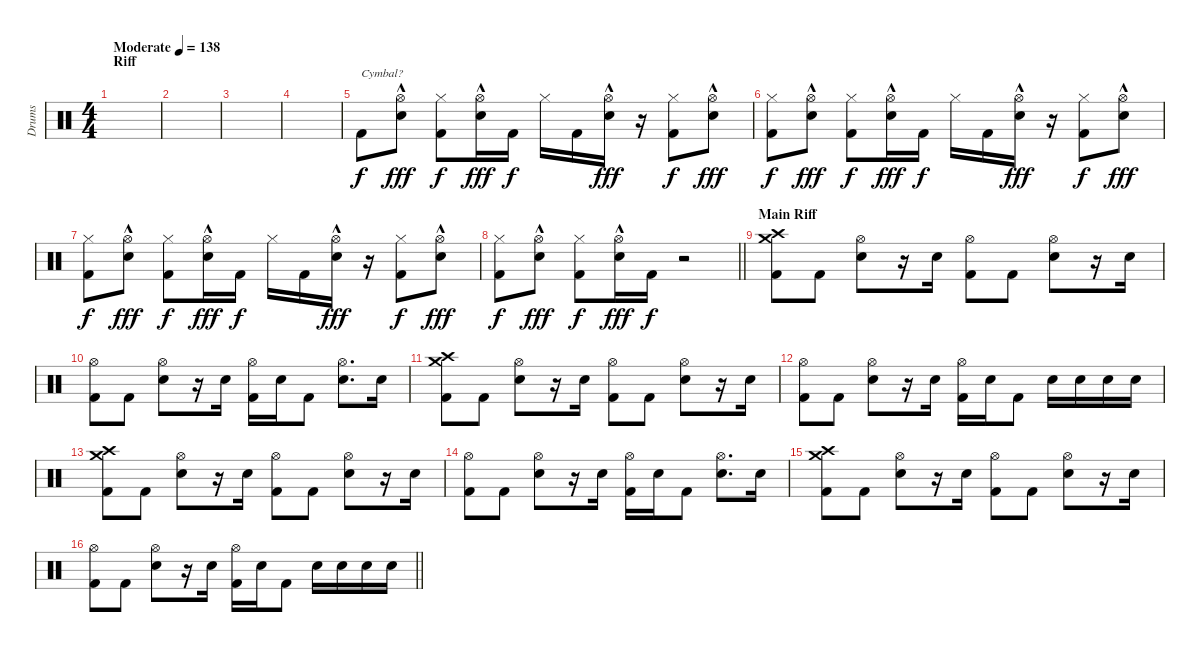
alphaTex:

\track ("Drums" "Drums") {instrument percussion}
\staff {score}
\articulation defaults
\ts (4 4)
\section ("" "Riff")
\tempo (138 "Moderate")
\clef neutral
\ks c
|
|
|
|
"Kick (hit) 2".8{txt "Cymbal?"} ("Hi-Hat (open)"{hac} "Electric Snare (hit)").8{dy fff} ("Hi-Hat (closed)" "Kick (hit) 2").8{dy f} ("Hi-Hat (open)"{hac} "Electric Snare (hit)").16{dy fff} "Kick (hit) 2".16{dy f} "Hi-Hat (closed)".16 "Kick (hit) 2".16 ("Hi-Hat (open)"{hac} "Electric Snare (hit)").16{dy fff} r.16 ("Hi-Hat (closed)" "Kick (hit) 2").8{dy f} ("Hi-Hat (open)"{hac} "Electric Snare (hit)").8{dy fff} |
("Hi-Hat (closed)" "Kick (hit) 2").8{dy f} ("Hi-Hat (open)"{hac} "Electric Snare (hit)").8{dy fff} ("Hi-Hat (closed)" "Kick (hit) 2").8{dy f} ("Hi-Hat (open)"{hac} "Electric Snare (hit)").16{dy fff} "Kick (hit) 2".16{dy f} "Hi-Hat (closed)".16 "Kick (hit) 2".16 ("Hi-Hat (open)"{hac} "Electric Snare (hit)").16{dy fff} r.16 ("Hi-Hat (closed)" "Kick (hit) 2").8{dy f} ("Hi-Hat (open)"{hac} "Electric Snare (hit)").8{dy fff} |
("Hi-Hat (closed)" "Kick (hit) 2").8{dy f} ("Hi-Hat (open)"{hac} "Electric Snare (hit)").8{dy fff} ("Hi-Hat (closed)" "Kick (hit) 2").8{dy f} ("Hi-Hat (open)"{hac} "Electric Snare (hit)").16{dy fff} "Kick (hit) 2".16{dy f} "Hi-Hat (closed)".16 "Kick (hit) 2".16 ("Hi-Hat (open)"{hac} "Electric Snare (hit)").16{dy fff} r.16 ("Hi-Hat (closed)" "Kick (hit) 2").8{dy f} ("Hi-Hat (open)"{hac} "Electric Snare (hit)").8{dy fff} |
\barLineRight lightlight
("Hi-Hat (closed)" "Kick (hit) 2").8{dy f} ("Hi-Hat (open)"{hac} "Electric Snare (hit)").8{dy fff} ("Hi-Hat (closed)" "Kick (hit) 2").8{dy f} ("Hi-Hat (open)"{hac} "Electric Snare (hit)").16{dy fff} "Kick (hit) 2".16{dy f} r.2 |
\section ("" "Main Riff")
("Crash high (hit)" "Crash medium (hit)" "Kick (hit) 2").8 "Kick (hit) 2".8 ("Hi-Hat (open)" "Electric Snare (hit)").8 r.16 "Electric Snare (hit)".16 ("Hi-Hat (open)" "Kick (hit) 2").8 "Kick (hit) 2".8 ("Hi-Hat (open)" "Electric Snare (hit)").8 r.16 "Electric Snare (hit)".16 |
("Hi-Hat (open)" "Kick (hit) 2").8 "Kick (hit) 2".8 ("Hi-Hat (open)" "Electric Snare (hit)").8 r.16 "Electric Snare (hit)".16 ("Hi-Hat (open)" "Kick (hit) 2").16 "Electric Snare (hit)".16 "Kick (hit) 2".8 ("Hi-Hat (open)" "Electric Snare (hit)").8{d} "Electric Snare (hit)".16 |
("Crash high (hit)" "Crash medium (hit)" "Kick (hit) 2").8 "Kick (hit) 2".8 ("Hi-Hat (open)" "Electric Snare (hit)").8 r.16 "Electric Snare (hit)".16 ("Hi-Hat (open)" "Kick (hit) 2").8 "Kick (hit) 2".8 ("Hi-Hat (open)" "Electric Snare (hit)").8 r.16 "Electric Snare (hit)".16 |
("Hi-Hat (open)" "Kick (hit) 2").8 "Kick (hit) 2".8 ("Hi-Hat (open)" "Electric Snare (hit)").8 r.16 "Electric Snare (hit)".16 ("Hi-Hat (open)" "Kick (hit) 2").16 "Electric Snare (hit)".16 "Kick (hit) 2".8 "Electric Snare (hit)".16 "Electric Snare (hit)".16 "Electric Snare (hit)".16 "Electric Snare (hit)".16 |
("Crash high (hit)" "Crash medium (hit)" "Kick (hit) 2").8 "Kick (hit) 2".8 ("Hi-Hat (open)" "Electric Snare (hit)").8 r.16 "Electric Snare (hit)".16 ("Hi-Hat (open)" "Kick (hit) 2").8 "Kick (hit) 2".8 ("Hi-Hat (open)" "Electric Snare (hit)").8 r.16 "Electric Snare (hit)".16 |
("Hi-Hat (open)" "Kick (hit) 2").8 "Kick (hit) 2".8 ("Hi-Hat (open)" "Electric Snare (hit)").8 r.16 "Electric Snare (hit)".16 ("Hi-Hat (open)" "Kick (hit) 2").16 "Electric Snare (hit)".16 "Kick (hit) 2".8 ("Hi-Hat (open)" "Electric Snare (hit)").8{d} "Electric Snare (hit)".16 |
("Crash high (hit)" "Crash medium (hit)" "Kick (hit) 2").8 "Kick (hit) 2".8 ("Hi-Hat (open)" "Electric Snare (hit)").8 r.16 "Electric Snare (hit)".16 ("Hi-Hat (open)" "Kick (hit) 2").8 "Kick (hit) 2".8 ("Hi-Hat (open)" "Electric Snare (hit)").8 r.16 "Electric Snare (hit)".16 |
\barLineRight lightlight
("Hi-Hat (open)" "Kick (hit) 2").8 "Kick (hit) 2".8 ("Hi-Hat (open)" "Electric Snare (hit)").8 r.16 "Electric Snare (hit)".16 ("Hi-Hat (open)" "Kick (hit) 2").16 "Electric Snare (hit)".16 "Kick (hit) 2".8 "Electric Snare (hit)".16 "Electric Snare (hit)".16 "Electric Snare (hit)".16 "Electric Snare (hit)".16
